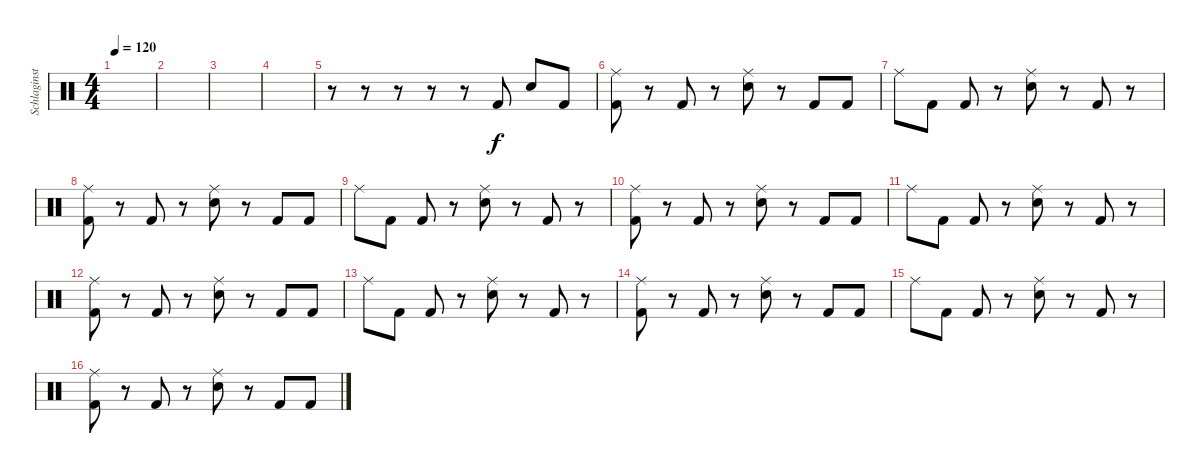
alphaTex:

\track ("Schlaginstrumente - Auswahl" "Schlaginst") {instrument percussion}
\staff {score}
\articulation defaults
\ts (4 4)
\tempo 120
\clef neutral
\ks c
|
|
|
|
r.8 r.8 r.8 r.8 r.8 "Kick (hit) 2".8 "Snare (hit) 2".8 "Kick (hit) 2".8 |
("Ride (middle)" "Kick (hit) 2").8 r.8 "Kick (hit) 2".8 r.8 ("Ride (middle)" "Snare (hit) 2").8 r.8 "Kick (hit) 2".8 "Kick (hit) 2".8 |
"Ride (middle)".8 "Kick (hit) 2".8 "Kick (hit) 2".8 r.8 ("Ride (middle)" "Snare (hit) 2").8 r.8 "Kick (hit) 2".8 r.8 |
("Ride (middle)" "Kick (hit) 2").8 r.8 "Kick (hit) 2".8 r.8 ("Ride (middle)" "Snare (hit) 2").8 r.8 "Kick (hit) 2".8 "Kick (hit) 2".8 |
"Ride (middle)".8 "Kick (hit) 2".8 "Kick (hit) 2".8 r.8 ("Ride (middle)" "Snare (hit) 2").8 r.8 "Kick (hit) 2".8 r.8 |
("Ride (middle)" "Kick (hit) 2").8 r.8 "Kick (hit) 2".8 r.8 ("Ride (middle)" "Snare (hit) 2").8 r.8 "Kick (hit) 2".8 "Kick (hit) 2".8 |
"Ride (middle)".8 "Kick (hit) 2".8 "Kick (hit) 2".8 r.8 ("Ride (middle)" "Snare (hit) 2").8 r.8 "Kick (hit) 2".8 r.8 |
("Ride (middle)" "Kick (hit) 2").8 r.8 "Kick (hit) 2".8 r.8 ("Ride (middle)" "Snare (hit) 2").8 r.8 "Kick (hit) 2".8 "Kick (hit) 2".8 |
"Ride (middle)".8 "Kick (hit) 2".8 "Kick (hit) 2".8 r.8 ("Ride (middle)" "Snare (hit) 2").8 r.8 "Kick (hit) 2".8 r.8 |
("Ride (middle)" "Kick (hit) 2").8 r.8 "Kick (hit) 2".8 r.8 ("Ride (middle)" "Snare (hit) 2").8 r.8 "Kick (hit) 2".8 "Kick (hit) 2".8 |
"Ride (middle)".8 "Kick (hit) 2".8 "Kick (hit) 2".8 r.8 ("Ride (middle)" "Snare (hit) 2").8 r.8 "Kick (hit) 2".8 r.8 |
("Ride (middle)" "Kick (hit) 2").8 r.8 "Kick (hit) 2".8 r.8 ("Ride (middle)" "Snare (hit) 2").8 r.8 "Kick (hit) 2".8 "Kick (hit) 2".8
